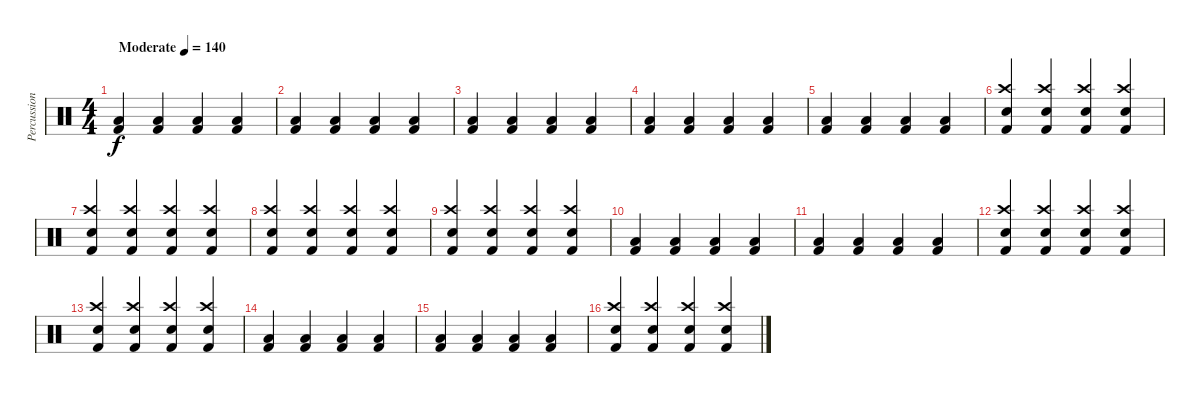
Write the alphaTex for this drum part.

\track ("Percussion" "Percussion") {instrument percussion}
\staff {score}
\articulation defaults
\ts (4 4)
\tempo (140 "Moderate")
\clef neutral
\ks c
("Low Tom (hit)" "Kick (hit) 2").4{dy f} ("Low Tom (hit)" "Kick (hit) 2").4 ("Low Tom (hit)" "Kick (hit) 2").4 ("Low Tom (hit)" "Kick (hit) 2").4 |
("Low Tom (hit)" "Kick (hit) 2").4 ("Low Tom (hit)" "Kick (hit) 2").4 ("Low Tom (hit)" "Kick (hit) 2").4 ("Low Tom (hit)" "Kick (hit) 2").4 |
("Low Tom (hit)" "Kick (hit) 2").4 ("Low Tom (hit)" "Kick (hit) 2").4 ("Low Tom (hit)" "Kick (hit) 2").4 ("Low Tom (hit)" "Kick (hit) 2").4 |
("Low Tom (hit)" "Kick (hit) 2").4 ("Low Tom (hit)" "Kick (hit) 2").4 ("Low Tom (hit)" "Kick (hit) 2").4 ("Low Tom (hit)" "Kick (hit) 2").4 |
("Low Tom (hit)" "Kick (hit) 2").4 ("Low Tom (hit)" "Kick (hit) 2").4 ("Low Tom (hit)" "Kick (hit) 2").4 ("Low Tom (hit)" "Kick (hit) 2").4 |
("Crash high (hit)" "Electric Snare (hit)" "Kick (hit) 2").4 ("Crash high (hit)" "Electric Snare (hit)" "Kick (hit) 2").4 ("Crash high (hit)" "Electric Snare (hit)" "Kick (hit) 2").4 ("Crash high (hit)" "Electric Snare (hit)" "Kick (hit) 2").4 |
("Crash high (hit)" "Electric Snare (hit)" "Kick (hit) 2").4 ("Crash high (hit)" "Electric Snare (hit)" "Kick (hit) 2").4 ("Crash high (hit)" "Electric Snare (hit)" "Kick (hit) 2").4 ("Crash high (hit)" "Electric Snare (hit)" "Kick (hit) 2").4 |
("Crash high (hit)" "Electric Snare (hit)" "Kick (hit) 2").4 ("Crash high (hit)" "Electric Snare (hit)" "Kick (hit) 2").4 ("Crash high (hit)" "Electric Snare (hit)" "Kick (hit) 2").4 ("Crash high (hit)" "Electric Snare (hit)" "Kick (hit) 2").4 |
("Crash high (hit)" "Electric Snare (hit)" "Kick (hit) 2").4 ("Crash high (hit)" "Electric Snare (hit)" "Kick (hit) 2").4 ("Crash high (hit)" "Electric Snare (hit)" "Kick (hit) 2").4 ("Crash high (hit)" "Electric Snare (hit)" "Kick (hit) 2").4 |
("Low Tom (hit)" "Kick (hit) 2").4 ("Low Tom (hit)" "Kick (hit) 2").4 ("Low Tom (hit)" "Kick (hit) 2").4 ("Low Tom (hit)" "Kick (hit) 2").4 |
("Low Tom (hit)" "Kick (hit) 2").4 ("Low Tom (hit)" "Kick (hit) 2").4 ("Low Tom (hit)" "Kick (hit) 2").4 ("Low Tom (hit)" "Kick (hit) 2").4 |
("Crash high (hit)" "Electric Snare (hit)" "Kick (hit) 2").4 ("Crash high (hit)" "Electric Snare (hit)" "Kick (hit) 2").4 ("Crash high (hit)" "Electric Snare (hit)" "Kick (hit) 2").4 ("Crash high (hit)" "Electric Snare (hit)" "Kick (hit) 2").4 |
("Crash high (hit)" "Electric Snare (hit)" "Kick (hit) 2").4 ("Crash high (hit)" "Electric Snare (hit)" "Kick (hit) 2").4 ("Crash high (hit)" "Electric Snare (hit)" "Kick (hit) 2").4 ("Crash high (hit)" "Electric Snare (hit)" "Kick (hit) 2").4 |
("Low Tom (hit)" "Kick (hit) 2").4 ("Low Tom (hit)" "Kick (hit) 2").4 ("Low Tom (hit)" "Kick (hit) 2").4 ("Low Tom (hit)" "Kick (hit) 2").4 |
("Low Tom (hit)" "Kick (hit) 2").4 ("Low Tom (hit)" "Kick (hit) 2").4 ("Low Tom (hit)" "Kick (hit) 2").4 ("Low Tom (hit)" "Kick (hit) 2").4 |
("Crash high (hit)" "Electric Snare (hit)" "Kick (hit) 2").4 ("Crash high (hit)" "Electric Snare (hit)" "Kick (hit) 2").4 ("Crash high (hit)" "Electric Snare (hit)" "Kick (hit) 2").4 ("Crash high (hit)" "Electric Snare (hit)" "Kick (hit) 2").4
